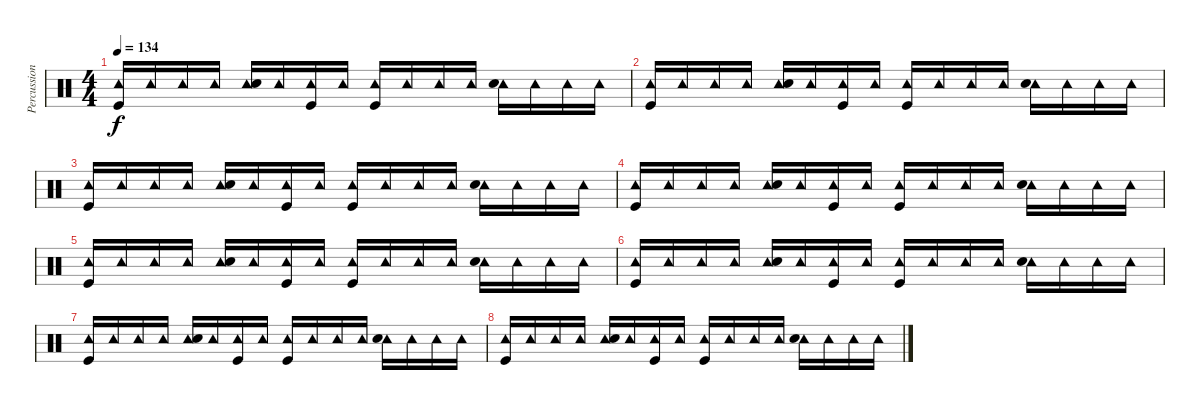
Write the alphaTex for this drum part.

\track ("Percussion (DK 24)" "Percussion") {instrument percussion}
\staff {score}
\articulation defaults
\ts (4 4)
\tempo 134
\clef neutral
\ks c
("Tambourine (hit)" "Kick (hit)").16{dy f} "Tambourine (hit)".16 "Tambourine (hit)".16 "Tambourine (hit)".16 ("Tambourine (hit)" "Snare (hit) 2").16 "Tambourine (hit)".16 ("Tambourine (hit)" "Kick (hit)").16 "Tambourine (hit)".16 ("Tambourine (hit)" "Kick (hit)").16 "Tambourine (hit)".16 "Tambourine (hit)".16 "Tambourine (hit)".16 ("Tambourine (hit)" "Snare (hit) 2").16 "Tambourine (hit)".16 "Tambourine (hit)".16 "Tambourine (hit)".16 |
("Tambourine (hit)" "Kick (hit)").16 "Tambourine (hit)".16 "Tambourine (hit)".16 "Tambourine (hit)".16 ("Tambourine (hit)" "Snare (hit) 2").16 "Tambourine (hit)".16 ("Tambourine (hit)" "Kick (hit)").16 "Tambourine (hit)".16 ("Tambourine (hit)" "Kick (hit)").16 "Tambourine (hit)".16 "Tambourine (hit)".16 "Tambourine (hit)".16 ("Tambourine (hit)" "Snare (hit) 2").16 "Tambourine (hit)".16 "Tambourine (hit)".16 "Tambourine (hit)".16 |
("Tambourine (hit)" "Kick (hit)").16 "Tambourine (hit)".16 "Tambourine (hit)".16 "Tambourine (hit)".16 ("Tambourine (hit)" "Snare (hit) 2").16 "Tambourine (hit)".16 ("Tambourine (hit)" "Kick (hit)").16 "Tambourine (hit)".16 ("Tambourine (hit)" "Kick (hit)").16 "Tambourine (hit)".16 "Tambourine (hit)".16 "Tambourine (hit)".16 ("Tambourine (hit)" "Snare (hit) 2").16 "Tambourine (hit)".16 "Tambourine (hit)".16 "Tambourine (hit)".16 |
("Tambourine (hit)" "Kick (hit)").16 "Tambourine (hit)".16 "Tambourine (hit)".16 "Tambourine (hit)".16 ("Tambourine (hit)" "Snare (hit) 2").16 "Tambourine (hit)".16 ("Tambourine (hit)" "Kick (hit)").16 "Tambourine (hit)".16 ("Tambourine (hit)" "Kick (hit)").16 "Tambourine (hit)".16 "Tambourine (hit)".16 "Tambourine (hit)".16 ("Tambourine (hit)" "Snare (hit) 2").16 "Tambourine (hit)".16 "Tambourine (hit)".16 "Tambourine (hit)".16 |
("Tambourine (hit)" "Kick (hit)").16 "Tambourine (hit)".16 "Tambourine (hit)".16 "Tambourine (hit)".16 ("Tambourine (hit)" "Snare (hit) 2").16 "Tambourine (hit)".16 ("Tambourine (hit)" "Kick (hit)").16 "Tambourine (hit)".16 ("Tambourine (hit)" "Kick (hit)").16 "Tambourine (hit)".16 "Tambourine (hit)".16 "Tambourine (hit)".16 ("Tambourine (hit)" "Snare (hit) 2").16 "Tambourine (hit)".16 "Tambourine (hit)".16 "Tambourine (hit)".16 |
("Tambourine (hit)" "Kick (hit)").16 "Tambourine (hit)".16 "Tambourine (hit)".16 "Tambourine (hit)".16 ("Tambourine (hit)" "Snare (hit) 2").16 "Tambourine (hit)".16 ("Tambourine (hit)" "Kick (hit)").16 "Tambourine (hit)".16 ("Tambourine (hit)" "Kick (hit)").16 "Tambourine (hit)".16 "Tambourine (hit)".16 "Tambourine (hit)".16 ("Tambourine (hit)" "Snare (hit) 2").16 "Tambourine (hit)".16 "Tambourine (hit)".16 "Tambourine (hit)".16 |
("Tambourine (hit)" "Kick (hit)").16 "Tambourine (hit)".16 "Tambourine (hit)".16 "Tambourine (hit)".16 ("Tambourine (hit)" "Snare (hit) 2").16 "Tambourine (hit)".16 ("Tambourine (hit)" "Kick (hit)").16 "Tambourine (hit)".16 ("Tambourine (hit)" "Kick (hit)").16 "Tambourine (hit)".16 "Tambourine (hit)".16 "Tambourine (hit)".16 ("Tambourine (hit)" "Snare (hit) 2").16 "Tambourine (hit)".16 "Tambourine (hit)".16 "Tambourine (hit)".16 |
("Tambourine (hit)" "Kick (hit)").16 "Tambourine (hit)".16 "Tambourine (hit)".16 "Tambourine (hit)".16 ("Tambourine (hit)" "Snare (hit) 2").16 "Tambourine (hit)".16 ("Tambourine (hit)" "Kick (hit)").16 "Tambourine (hit)".16 ("Tambourine (hit)" "Kick (hit)").16 "Tambourine (hit)".16 "Tambourine (hit)".16 "Tambourine (hit)".16 ("Tambourine (hit)" "Snare (hit) 2").16 "Tambourine (hit)".16 "Tambourine (hit)".16 "Tambourine (hit)".16
